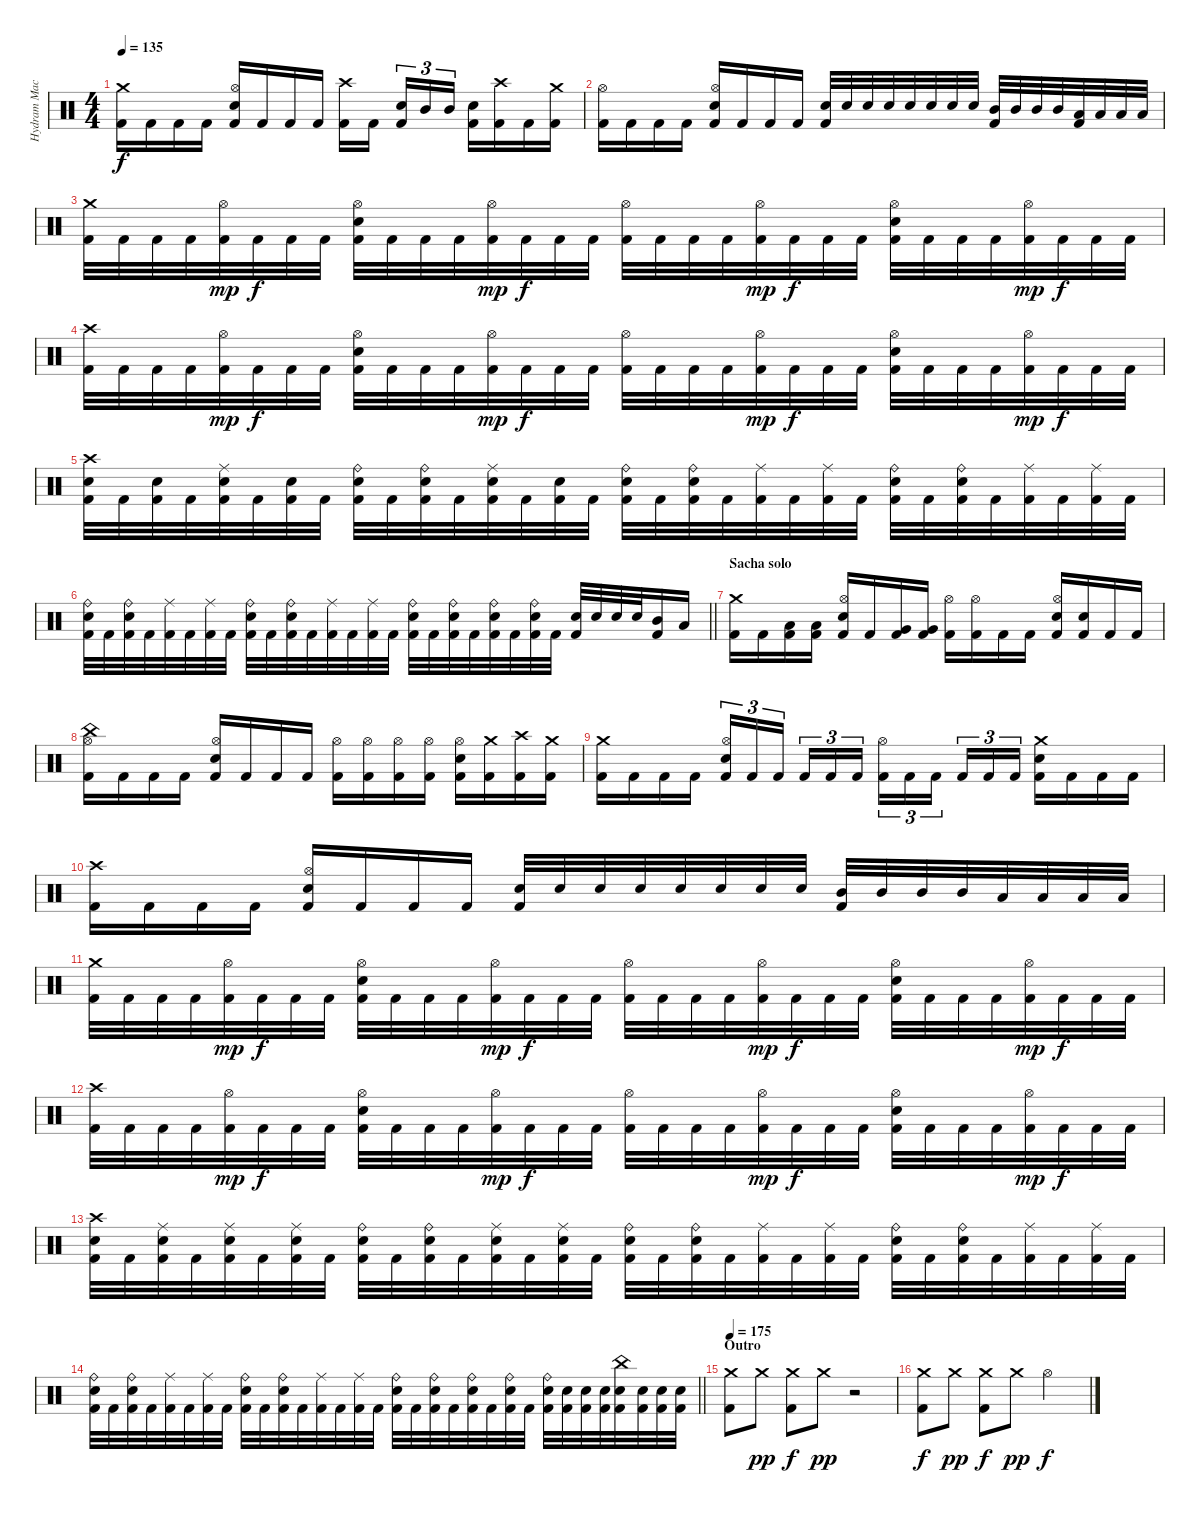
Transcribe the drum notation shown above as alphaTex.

\track ("Hydram Machine" "Hydram Mac") {instrument percussion}
\staff {score}
\articulation defaults
\ts (4 4)
\tempo 135
\clef neutral
\ks c
("Crash medium (hit)" "Kick (hit) 2").16{dy f} "Kick (hit) 2".16 "Kick (hit) 2".16 "Kick (hit) 2".16 ("Hi-Hat (open)" "Electric Snare (hit)" "Kick (hit) 2").16 "Kick (hit) 2".16 "Kick (hit) 2".16 "Kick (hit) 2".16 ("Crash high (hit)" "Kick (hit) 2").16 "Kick (hit) 2".16{beam splitsecondary} ("Electric Snare (hit)" "Kick (hit) 2").16{tu (3 2)} "Mid Tom (hit)".16{tu (3 2)} "Mid Tom (hit)".16{tu (3 2)} ("Electric Snare (hit)" "Kick (hit) 2").16 ("Crash high (hit)" "Kick (hit) 2").16 "Kick (hit) 2".16 ("Crash medium (hit)" "Kick (hit) 2").16 |
("Hi-Hat (open)" "Kick (hit) 2").16 "Kick (hit) 2".16 "Kick (hit) 2".16 "Kick (hit) 2".16 ("Hi-Hat (open)" "Electric Snare (hit)" "Kick (hit) 2").16 "Kick (hit) 2".16 "Kick (hit) 2".16 "Kick (hit) 2".16 ("Electric Snare (hit)" "Kick (hit) 2").32 "Electric Snare (hit)".32 "Electric Snare (hit)".32 "Electric Snare (hit)".32 "Electric Snare (hit)".32 "Electric Snare (hit)".32 "Electric Snare (hit)".32 "Electric Snare (hit)".32 ("Mid Tom (hit)" "Kick (hit) 2").32 "Mid Tom (hit)".32 "Mid Tom (hit)".32 "Mid Tom (hit)".32 ("Low Tom (hit)" "Kick (hit) 2").32 "Low Tom (hit)".32 "Low Tom (hit)".32 "Low Tom (hit)".32 |
("Crash medium (hit)" "Kick (hit) 2").32 "Kick (hit) 2".32 "Kick (hit) 2".32 "Kick (hit) 2".32 ("Hi-Hat (open)" "Kick (hit) 2").32{dy mp} "Kick (hit) 2".32{dy f} "Kick (hit) 2".32 "Kick (hit) 2".32 ("Hi-Hat (open)" "Electric Snare (hit)" "Kick (hit) 2").32 "Kick (hit) 2".32 "Kick (hit) 2".32 "Kick (hit) 2".32 ("Hi-Hat (open)" "Kick (hit) 2").32{dy mp} "Kick (hit) 2".32{dy f} "Kick (hit) 2".32 "Kick (hit) 2".32 ("Hi-Hat (open)" "Kick (hit) 2").32 "Kick (hit) 2".32 "Kick (hit) 2".32 "Kick (hit) 2".32 ("Hi-Hat (open)" "Kick (hit) 2").32{dy mp} "Kick (hit) 2".32{dy f} "Kick (hit) 2".32 "Kick (hit) 2".32 ("Hi-Hat (open)" "Electric Snare (hit)" "Kick (hit) 2").32 "Kick (hit) 2".32 "Kick (hit) 2".32 "Kick (hit) 2".32 ("Hi-Hat (open)" "Kick (hit) 2").32{dy mp} "Kick (hit) 2".32{dy f} "Kick (hit) 2".32 "Kick (hit) 2".32 |
("Crash high (hit)" "Kick (hit) 2").32 "Kick (hit) 2".32 "Kick (hit) 2".32 "Kick (hit) 2".32 ("Hi-Hat (open)" "Kick (hit) 2").32{dy mp} "Kick (hit) 2".32{dy f} "Kick (hit) 2".32 "Kick (hit) 2".32 ("Hi-Hat (open)" "Electric Snare (hit)" "Kick (hit) 2").32 "Kick (hit) 2".32 "Kick (hit) 2".32 "Kick (hit) 2".32 ("Hi-Hat (open)" "Kick (hit) 2").32{dy mp} "Kick (hit) 2".32{dy f} "Kick (hit) 2".32 "Kick (hit) 2".32 ("Hi-Hat (open)" "Kick (hit) 2").32 "Kick (hit) 2".32 "Kick (hit) 2".32 "Kick (hit) 2".32 ("Hi-Hat (open)" "Kick (hit) 2").32{dy mp} "Kick (hit) 2".32{dy f} "Kick (hit) 2".32 "Kick (hit) 2".32 ("Hi-Hat (open)" "Electric Snare (hit)" "Kick (hit) 2").32 "Kick (hit) 2".32 "Kick (hit) 2".32 "Kick (hit) 2".32 ("Hi-Hat (open)" "Kick (hit) 2").32{dy mp} "Kick (hit) 2".32{dy f} "Kick (hit) 2".32 "Kick (hit) 2".32 |
("Crash high (hit)" "Electric Snare (hit)" "Kick (hit) 2").32 "Kick (hit) 2".32 ("Electric Snare (hit)" "Kick (hit) 2").32 "Kick (hit) 2".32 ("Ride (middle)" "Electric Snare (hit)" "Kick (hit) 2").32 "Kick (hit) 2".32 ("Electric Snare (hit)" "Kick (hit) 2").32 "Kick (hit) 2".32 ("Ride (bell)" "Electric Snare (hit)" "Kick (hit) 2").32 "Kick (hit) 2".32 ("Ride (bell)" "Electric Snare (hit)" "Kick (hit) 2").32 "Kick (hit) 2".32 ("Ride (middle)" "Electric Snare (hit)" "Kick (hit) 2").32 "Kick (hit) 2".32 ("Electric Snare (hit)" "Kick (hit) 2").32 "Kick (hit) 2".32 ("Ride (bell)" "Electric Snare (hit)" "Kick (hit) 2").32 "Kick (hit) 2".32 ("Ride (bell)" "Electric Snare (hit)" "Kick (hit) 2").32 "Kick (hit) 2".32 ("Ride (middle)" "Kick (hit) 2").32 "Kick (hit) 2".32 ("Ride (middle)" "Kick (hit) 2").32 "Kick (hit) 2".32 ("Ride (bell)" "Electric Snare (hit)" "Kick (hit) 2").32 "Kick (hit) 2".32 ("Ride (bell)" "Electric Snare (hit)" "Kick (hit) 2").32 "Kick (hit) 2".32 ("Ride (middle)" "Kick (hit) 2").32 "Kick (hit) 2".32 ("Ride (middle)" "Kick (hit) 2").32 "Kick (hit) 2".32 |
\barLineRight lightlight
("Ride (bell)" "Electric Snare (hit)" "Kick (hit) 2").32 "Kick (hit) 2".32 ("Ride (bell)" "Electric Snare (hit)" "Kick (hit) 2").32 "Kick (hit) 2".32 ("Ride (middle)" "Kick (hit) 2").32 "Kick (hit) 2".32 ("Ride (middle)" "Kick (hit) 2").32 "Kick (hit) 2".32 ("Ride (bell)" "Electric Snare (hit)" "Kick (hit) 2").32 "Kick (hit) 2".32 ("Ride (bell)" "Electric Snare (hit)" "Kick (hit) 2").32 "Kick (hit) 2".32 ("Ride (middle)" "Kick (hit) 2").32 "Kick (hit) 2".32 ("Ride (middle)" "Kick (hit) 2").32 "Kick (hit) 2".32 ("Ride (bell)" "Electric Snare (hit)" "Kick (hit) 2").32 "Kick (hit) 2".32 ("Ride (bell)" "Electric Snare (hit)" "Kick (hit) 2").32 "Kick (hit) 2".32 ("Ride (bell)" "Electric Snare (hit)" "Kick (hit) 2").32 "Kick (hit) 2".32 ("Ride (bell)" "Electric Snare (hit)" "Kick (hit) 2").32 "Kick (hit) 2".32 ("Electric Snare (hit)" "Kick (hit) 2").32 "Electric Snare (hit)".32 "Electric Snare (hit)".32 "Electric Snare (hit)".32 ("Mid Tom (hit)" "Kick (hit) 2").16 "Low Tom (hit)".16 |
\section ("" "Sacha solo")
("Crash medium (hit)" "Kick (hit) 2").16 "Kick (hit) 2".16 ("Low Tom (hit)" "Kick (hit) 2").16 ("Low Tom (hit)" "Kick (hit) 2").16 ("Hi-Hat (open)" "Electric Snare (hit)" "Kick (hit) 2").16 "Kick (hit) 2".16 ("Very Low Tom (hit)" "Kick (hit) 2").16 ("Very Low Tom (hit)" "Kick (hit) 2").16 ("Hi-Hat (open)" "Kick (hit) 2").16 ("Hi-Hat (open)" "Kick (hit) 2").16 "Kick (hit) 2".16 "Kick (hit) 2".16 ("Hi-Hat (open)" "Electric Snare (hit)" "Kick (hit) 2").16 ("Electric Snare (hit)" "Kick (hit) 2").16 "Kick (hit) 2".16 "Kick (hit) 2".16 |
("Hi-Hat (open)" "China (hit)" "Kick (hit) 2").16 "Kick (hit) 2".16 "Kick (hit) 2".16 "Kick (hit) 2".16 ("Hi-Hat (open)" "Electric Snare (hit)" "Kick (hit) 2").16 "Kick (hit) 2".16 "Kick (hit) 2".16 "Kick (hit) 2".16 ("Hi-Hat (open)" "Kick (hit) 2").16 ("Hi-Hat (open)" "Kick (hit) 2").16 ("Hi-Hat (open)" "Kick (hit) 2").16 ("Hi-Hat (open)" "Kick (hit) 2").16 ("Hi-Hat (open)" "Electric Snare (hit)" "Kick (hit) 2").16 ("Crash medium (hit)" "Kick (hit) 2").16 ("Crash high (hit)" "Kick (hit) 2").16 ("Crash medium (hit)" "Kick (hit) 2").16 |
("Crash medium (hit)" "Kick (hit) 2").16 "Kick (hit) 2".16 "Kick (hit) 2".16 "Kick (hit) 2".16 ("Hi-Hat (open)" "Electric Snare (hit)" "Kick (hit) 2").16{tu (3 2)} "Kick (hit) 2".16{tu (3 2)} "Kick (hit) 2".16{tu (3 2) beam splitsecondary} "Kick (hit) 2".16{tu (3 2)} "Kick (hit) 2".16{tu (3 2)} "Kick (hit) 2".16{tu (3 2)} ("Hi-Hat (open)" "Kick (hit) 2").16{tu (3 2)} "Kick (hit) 2".16{tu (3 2)} "Kick (hit) 2".16{tu (3 2) beam splitsecondary} "Kick (hit) 2".16{tu (3 2)} "Kick (hit) 2".16{tu (3 2)} "Kick (hit) 2".16{tu (3 2)} ("Crash medium (hit)" "Electric Snare (hit)" "Kick (hit) 2").16 "Kick (hit) 2".16 "Kick (hit) 2".16 "Kick (hit) 2".16 |
("Crash high (hit)" "Kick (hit) 2").16 "Kick (hit) 2".16 "Kick (hit) 2".16 "Kick (hit) 2".16 ("Hi-Hat (open)" "Electric Snare (hit)" "Kick (hit) 2").16 "Kick (hit) 2".16 "Kick (hit) 2".16 "Kick (hit) 2".16 ("Electric Snare (hit)" "Kick (hit) 2").32 "Electric Snare (hit)".32 "Electric Snare (hit)".32 "Electric Snare (hit)".32 "Electric Snare (hit)".32 "Electric Snare (hit)".32 "Electric Snare (hit)".32 "Electric Snare (hit)".32 ("Mid Tom (hit)" "Kick (hit) 2").32 "Mid Tom (hit)".32 "Mid Tom (hit)".32 "Mid Tom (hit)".32 "Low Tom (hit)".32 "Low Tom (hit)".32 "Low Tom (hit)".32 "Low Tom (hit)".32 |
("Crash medium (hit)" "Kick (hit) 2").32 "Kick (hit) 2".32 "Kick (hit) 2".32 "Kick (hit) 2".32 ("Hi-Hat (open)" "Kick (hit) 2").32{dy mp} "Kick (hit) 2".32{dy f} "Kick (hit) 2".32 "Kick (hit) 2".32 ("Hi-Hat (open)" "Electric Snare (hit)" "Kick (hit) 2").32 "Kick (hit) 2".32 "Kick (hit) 2".32 "Kick (hit) 2".32 ("Hi-Hat (open)" "Kick (hit) 2").32{dy mp} "Kick (hit) 2".32{dy f} "Kick (hit) 2".32 "Kick (hit) 2".32 ("Hi-Hat (open)" "Kick (hit) 2").32 "Kick (hit) 2".32 "Kick (hit) 2".32 "Kick (hit) 2".32 ("Hi-Hat (open)" "Kick (hit) 2").32{dy mp} "Kick (hit) 2".32{dy f} "Kick (hit) 2".32 "Kick (hit) 2".32 ("Hi-Hat (open)" "Electric Snare (hit)" "Kick (hit) 2").32 "Kick (hit) 2".32 "Kick (hit) 2".32 "Kick (hit) 2".32 ("Hi-Hat (open)" "Kick (hit) 2").32{dy mp} "Kick (hit) 2".32{dy f} "Kick (hit) 2".32 "Kick (hit) 2".32 |
("Crash high (hit)" "Kick (hit) 2").32 "Kick (hit) 2".32 "Kick (hit) 2".32 "Kick (hit) 2".32 ("Hi-Hat (open)" "Kick (hit) 2").32{dy mp} "Kick (hit) 2".32{dy f} "Kick (hit) 2".32 "Kick (hit) 2".32 ("Hi-Hat (open)" "Electric Snare (hit)" "Kick (hit) 2").32 "Kick (hit) 2".32 "Kick (hit) 2".32 "Kick (hit) 2".32 ("Hi-Hat (open)" "Kick (hit) 2").32{dy mp} "Kick (hit) 2".32{dy f} "Kick (hit) 2".32 "Kick (hit) 2".32 ("Hi-Hat (open)" "Kick (hit) 2").32 "Kick (hit) 2".32 "Kick (hit) 2".32 "Kick (hit) 2".32 ("Hi-Hat (open)" "Kick (hit) 2").32{dy mp} "Kick (hit) 2".32{dy f} "Kick (hit) 2".32 "Kick (hit) 2".32 ("Hi-Hat (open)" "Electric Snare (hit)" "Kick (hit) 2").32 "Kick (hit) 2".32 "Kick (hit) 2".32 "Kick (hit) 2".32 ("Hi-Hat (open)" "Kick (hit) 2").32{dy mp} "Kick (hit) 2".32{dy f} "Kick (hit) 2".32 "Kick (hit) 2".32 |
("Crash high (hit)" "Electric Snare (hit)" "Kick (hit) 2").32 "Kick (hit) 2".32 ("Ride (middle)" "Electric Snare (hit)" "Kick (hit) 2").32 "Kick (hit) 2".32 ("Ride (middle)" "Electric Snare (hit)" "Kick (hit) 2").32 "Kick (hit) 2".32 ("Ride (middle)" "Electric Snare (hit)" "Kick (hit) 2").32 "Kick (hit) 2".32 ("Ride (bell)" "Electric Snare (hit)" "Kick (hit) 2").32 "Kick (hit) 2".32 ("Ride (bell)" "Electric Snare (hit)" "Kick (hit) 2").32 "Kick (hit) 2".32 ("Ride (middle)" "Electric Snare (hit)" "Kick (hit) 2").32 "Kick (hit) 2".32 ("Ride (middle)" "Electric Snare (hit)" "Kick (hit) 2").32 "Kick (hit) 2".32 ("Ride (bell)" "Electric Snare (hit)" "Kick (hit) 2").32 "Kick (hit) 2".32 ("Ride (bell)" "Electric Snare (hit)" "Kick (hit) 2").32 "Kick (hit) 2".32 ("Ride (middle)" "Kick (hit) 2").32 "Kick (hit) 2".32 ("Ride (middle)" "Kick (hit) 2").32 "Kick (hit) 2".32 ("Ride (bell)" "Electric Snare (hit)" "Kick (hit) 2").32 "Kick (hit) 2".32 ("Ride (bell)" "Electric Snare (hit)" "Kick (hit) 2").32 "Kick (hit) 2".32 ("Ride (middle)" "Kick (hit) 2").32 "Kick (hit) 2".32 ("Ride (middle)" "Kick (hit) 2").32 "Kick (hit) 2".32 |
\barLineRight lightlight
("Ride (bell)" "Electric Snare (hit)" "Kick (hit) 2").32 "Kick (hit) 2".32 ("Ride (bell)" "Electric Snare (hit)" "Kick (hit) 2").32 "Kick (hit) 2".32 ("Ride (middle)" "Kick (hit) 2").32 "Kick (hit) 2".32 ("Ride (middle)" "Kick (hit) 2").32 "Kick (hit) 2".32 ("Ride (bell)" "Electric Snare (hit)" "Kick (hit) 2").32 "Kick (hit) 2".32 ("Ride (bell)" "Electric Snare (hit)" "Kick (hit) 2").32 "Kick (hit) 2".32 ("Ride (middle)" "Kick (hit) 2").32 "Kick (hit) 2".32 ("Ride (middle)" "Kick (hit) 2").32 "Kick (hit) 2".32 ("Ride (bell)" "Electric Snare (hit)" "Kick (hit) 2").32 "Kick (hit) 2".32 ("Ride (bell)" "Electric Snare (hit)" "Kick (hit) 2").32 "Kick (hit) 2".32 ("Ride (bell)" "Electric Snare (hit)" "Kick (hit) 2").32 "Kick (hit) 2".32 ("Ride (bell)" "Electric Snare (hit)" "Kick (hit) 2").32 "Kick (hit) 2".32 ("Ride (bell)" "Electric Snare (hit)" "Kick (hit) 2").32 ("Electric Snare (hit)" "Kick (hit) 2").32 ("Electric Snare (hit)" "Kick (hit) 2").32 ("Electric Snare (hit)" "Kick (hit) 2").32 ("China (hit)" "Electric Snare (hit)" "Kick (hit) 2").32 ("Electric Snare (hit)" "Kick (hit) 2").32 ("Electric Snare (hit)" "Kick (hit) 2").32 ("Electric Snare (hit)" "Kick (hit) 2").32 |
\section ("" "Outro")
\tempo 175
("Crash medium (hit)" "Kick (hit) 2").8 "Crash medium (hit)".8{dy pp} ("Crash medium (hit)" "Kick (hit) 2").8{dy f} "Crash medium (hit)".8{dy pp} r.2 |
("Crash medium (hit)" "Kick (hit) 2").8{dy f} "Crash medium (hit)".8{dy pp} ("Crash medium (hit)" "Kick (hit) 2").8{dy f} "Crash medium (hit)".8{dy pp} "Hi-Hat (open)".2{dy f}
